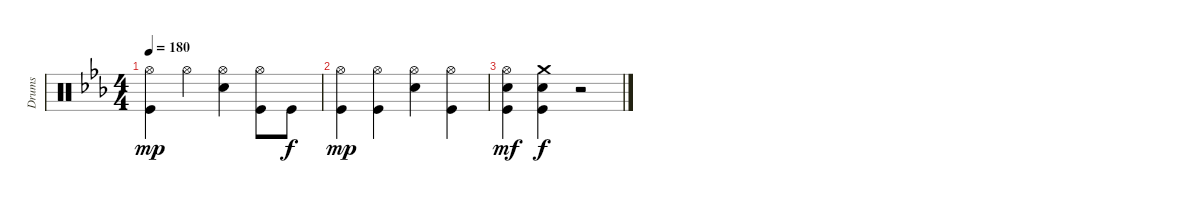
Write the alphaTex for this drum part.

\track ("Drums" "Drums") {instrument percussion}
\staff {score}
\articulation defaults
\ts (4 4)
\tempo 180
\clef neutral
\ks eb
("Hi-Hat (open)" "Kick (hit)").4{dy mp} "Hi-Hat (open)".4 ("Hi-Hat (open)" "Snare (hit) 2").4 ("Hi-Hat (open)" "Kick (hit)").8 "Kick (hit)".8{dy f} |
("Hi-Hat (open)" "Kick (hit)").4{dy mp} ("Hi-Hat (open)" "Kick (hit)").4 ("Hi-Hat (open)" "Snare (hit) 2").4 ("Hi-Hat (open)" "Kick (hit)").4 |
("Hi-Hat (open)" "Snare (hit) 2" "Kick (hit)").4{dy mf} ("Crash medium (hit)" "Snare (hit) 2" "Kick (hit)").4{dy f} r.2
